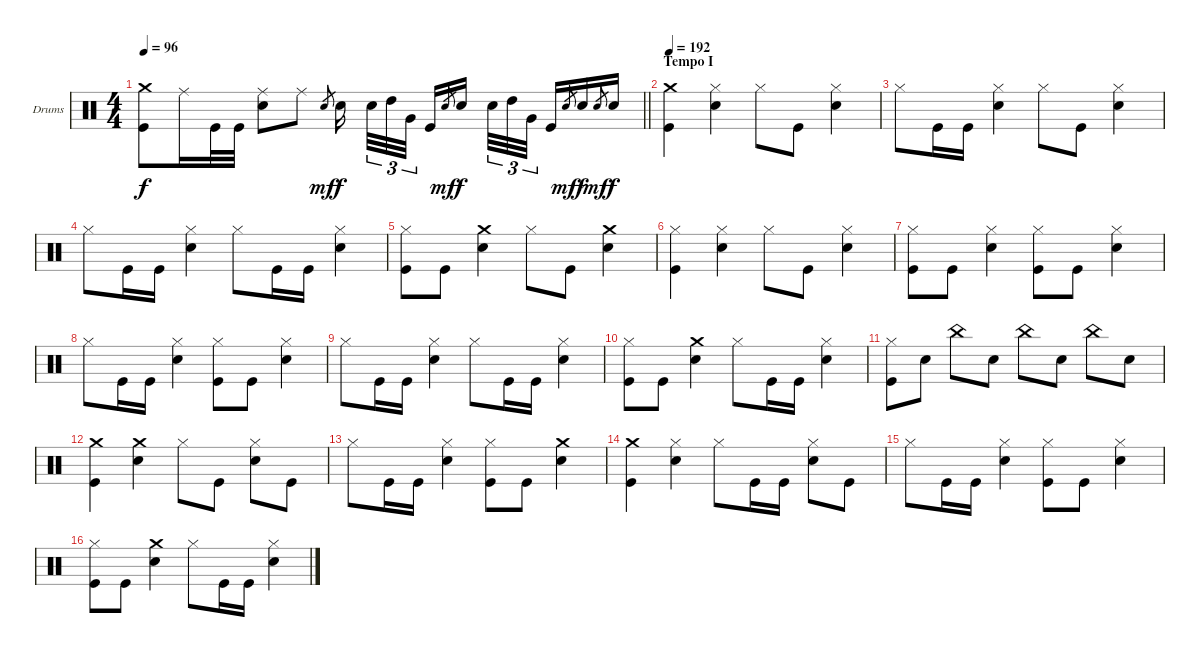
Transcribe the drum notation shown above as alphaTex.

\bracketExtendMode groupsimilarinstruments
\firstSystemTrackNameOrientation horizontal
\otherSystemsTrackNameOrientation horizontal
\track ("Lars Ulrich" "Drums") {instrument percussion}
\staff {score}
\articulation defaults
\ts (4 4)
\tempo 96
\clef neutral
\barLineRight lightlight
\ks c
("Crash medium (hit)" "Kick (hit)").8{dy f} "Ride (middle)".16 "Kick (hit)".32 "Kick (hit)".32 ("Ride (middle)" "Snare (hit) 2").8 "Ride (middle)".8 "Snare (hit) 2".8{gr dy mf} "Snare (hit) 2".16{dy f} "Snare (hit) 2".32{tu (3 2)} "High Tom (hit)".32{tu (3 2)} "Very Low Tom (hit)".32{tu (3 2)} "Kick (hit)".16 "Snare (hit) 2".8{gr dy mf} "Snare (hit) 2".16{dy f} "Snare (hit) 2".32{tu (3 2)} "High Tom (hit)".32{tu (3 2)} "Very Low Tom (hit)".32{tu (3 2)} "Kick (hit)".16 "Snare (hit) 2".8{gr dy mf} "Snare (hit) 2".16{dy f} "Snare (hit) 2".8{gr dy mf} "Snare (hit) 2".16{dy f} |
\section ("" "Tempo I")
\tempo 192
("Crash medium (hit)" "Kick (hit)").4 ("Hi-Hat (closed)" "Snare (hit) 2").4 "Hi-Hat (closed)".8 "Kick (hit)".8 ("Hi-Hat (closed)" "Snare (hit) 2").4 |
"Hi-Hat (closed)".8 "Kick (hit)".16 "Kick (hit)".16 ("Hi-Hat (closed)" "Snare (hit) 2").4 "Hi-Hat (closed)".8 "Kick (hit)".8 ("Hi-Hat (closed)" "Snare (hit) 2").4 |
"Hi-Hat (closed)".8 "Kick (hit)".16 "Kick (hit)".16 ("Hi-Hat (closed)" "Snare (hit) 2").4 "Hi-Hat (closed)".8 "Kick (hit)".16 "Kick (hit)".16 ("Hi-Hat (closed)" "Snare (hit) 2").4 |
("Hi-Hat (closed)" "Kick (hit)").8 "Kick (hit)".8 ("Crash medium (hit)" "Snare (hit) 2").4 "Hi-Hat (closed)".8 "Kick (hit)".8 ("Crash medium (hit)" "Snare (hit) 2").4 |
("Hi-Hat (closed)" "Kick (hit)").4 ("Hi-Hat (closed)" "Snare (hit) 2").4 "Hi-Hat (closed)".8 "Kick (hit)".8 ("Hi-Hat (closed)" "Snare (hit) 2").4 |
("Hi-Hat (closed)" "Kick (hit)").8 "Kick (hit)".8 ("Hi-Hat (closed)" "Snare (hit) 2").4 ("Hi-Hat (closed)" "Kick (hit)").8 "Kick (hit)".8 ("Hi-Hat (closed)" "Snare (hit) 2").4 |
"Hi-Hat (closed)".8 "Kick (hit)".16 "Kick (hit)".16 ("Hi-Hat (closed)" "Snare (hit) 2").4 ("Hi-Hat (closed)" "Kick (hit)").8 "Kick (hit)".8 ("Hi-Hat (closed)" "Snare (hit) 2").4 |
"Hi-Hat (closed)".8 "Kick (hit)".16 "Kick (hit)".16 ("Hi-Hat (closed)" "Snare (hit) 2").4 "Hi-Hat (closed)".8 "Kick (hit)".16 "Kick (hit)".16 ("Hi-Hat (closed)" "Snare (hit) 2").4 |
("Hi-Hat (closed)" "Kick (hit)").8 "Kick (hit)".8 ("Crash medium (hit)" "Snare (hit) 2").4 "Hi-Hat (closed)".8 "Kick (hit)".16 "Kick (hit)".16 ("Hi-Hat (closed)" "Snare (hit) 2").4 |
("Hi-Hat (closed)" "Kick (hit)").8 "Snare (hit) 2".8 "China (hit)".8 "Snare (hit) 2".8 "China (hit)".8 "Snare (hit) 2".8 "China (hit)".8 "Snare (hit) 2".8 |
("Crash medium (hit)" "Kick (hit)").4 ("Crash medium (hit)" "Snare (hit) 2").4 "Hi-Hat (closed)".8 "Kick (hit)".8 ("Hi-Hat (closed)" "Snare (hit) 2").8 "Kick (hit)".8 |
"Hi-Hat (closed)".8 "Kick (hit)".16 "Kick (hit)".16 ("Hi-Hat (closed)" "Snare (hit) 2").4 ("Hi-Hat (closed)" "Kick (hit)").8 "Kick (hit)".8 ("Crash medium (hit)" "Snare (hit) 2").4 |
("Crash medium (hit)" "Kick (hit)").4 ("Hi-Hat (closed)" "Snare (hit) 2").4 "Hi-Hat (closed)".8 "Kick (hit)".16 "Kick (hit)".16 ("Hi-Hat (closed)" "Snare (hit) 2").8 "Kick (hit)".8 |
"Hi-Hat (closed)".8 "Kick (hit)".16 "Kick (hit)".16 ("Hi-Hat (closed)" "Snare (hit) 2").4 ("Hi-Hat (closed)" "Kick (hit)").8 "Kick (hit)".8 ("Hi-Hat (closed)" "Snare (hit) 2").4 |
("Hi-Hat (closed)" "Kick (hit)").8 "Kick (hit)".8 ("Crash medium (hit)" "Snare (hit) 2").4 "Hi-Hat (closed)".8 "Kick (hit)".16 "Kick (hit)".16 ("Hi-Hat (closed)" "Snare (hit) 2").4
